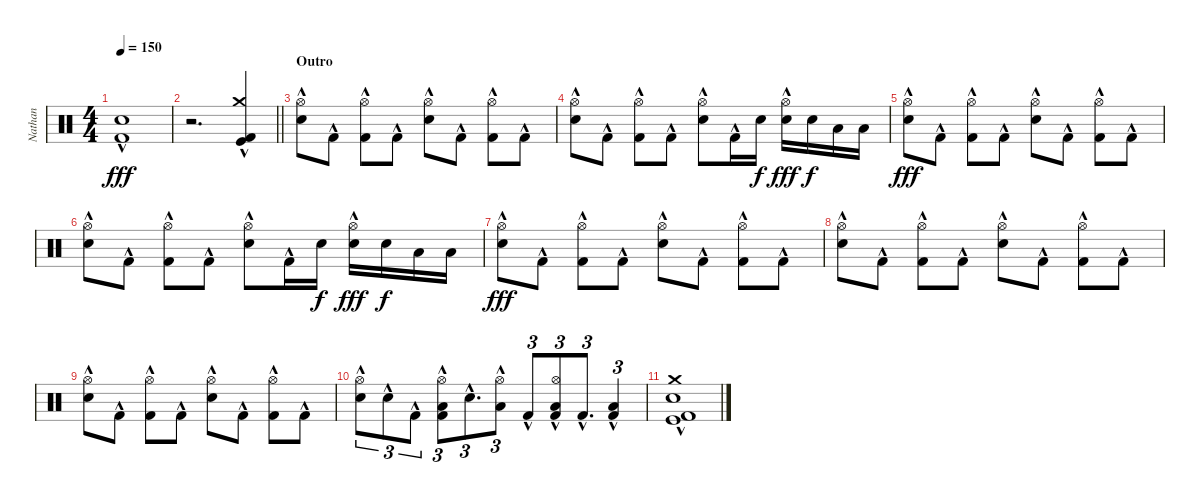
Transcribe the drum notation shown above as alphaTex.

\track ("Nathan" "Nathan") {instrument percussion}
\staff {score}
\articulation defaults
\ts (4 4)
\tempo 150
\clef neutral
\ks c
("Snare (hit) 2"{hac} "Kick (hit) 2"{hac}).1{dy fff} |
\barLineRight lightlight
r.2{d} ("Crash medium (hit)"{hac} "Kick (hit)"{hac} "Kick (hit) 2"{hac}).4 |
\section ("" "Outro")
("Hi-Hat (open)"{hac} "Snare (hit) 2"{hac}).8 "Kick (hit) 2"{hac}.8 ("Hi-Hat (open)"{hac} "Kick (hit) 2"{hac}).8 "Kick (hit) 2"{hac}.8 ("Hi-Hat (open)"{hac} "Snare (hit) 2"{hac}).8 "Kick (hit) 2"{hac}.8 ("Hi-Hat (open)"{hac} "Kick (hit) 2"{hac}).8 "Kick (hit) 2"{hac}.8 |
("Hi-Hat (open)"{hac} "Snare (hit) 2"{hac}).8 "Kick (hit) 2"{hac}.8 ("Hi-Hat (open)"{hac} "Kick (hit) 2"{hac}).8 "Kick (hit) 2"{hac}.8 ("Hi-Hat (open)"{hac} "Snare (hit) 2"{hac}).8 "Kick (hit) 2"{hac}.16 "Snare (hit) 2".16{dy f} ("Hi-Hat (open)"{hac} "Snare (hit) 2").16{dy fff} "Snare (hit) 2".16{dy f} "Low Tom (hit)".16 "Low Tom (hit)".16 |
("Hi-Hat (open)"{hac} "Snare (hit) 2"{hac}).8{dy fff} "Kick (hit) 2"{hac}.8 ("Hi-Hat (open)"{hac} "Kick (hit) 2"{hac}).8 "Kick (hit) 2"{hac}.8 ("Hi-Hat (open)"{hac} "Snare (hit) 2"{hac}).8 "Kick (hit) 2"{hac}.8 ("Hi-Hat (open)"{hac} "Kick (hit) 2"{hac}).8 "Kick (hit) 2"{hac}.8 |
("Hi-Hat (open)"{hac} "Snare (hit) 2"{hac}).8 "Kick (hit) 2"{hac}.8 ("Hi-Hat (open)"{hac} "Kick (hit) 2"{hac}).8 "Kick (hit) 2"{hac}.8 ("Hi-Hat (open)"{hac} "Snare (hit) 2"{hac}).8 "Kick (hit) 2"{hac}.16 "Snare (hit) 2".16{dy f} ("Hi-Hat (open)"{hac} "Snare (hit) 2").16{dy fff} "Snare (hit) 2".16{dy f} "Low Tom (hit)".16 "Low Tom (hit)".16 |
("Hi-Hat (open)"{hac} "Snare (hit) 2"{hac}).8{dy fff} "Kick (hit) 2"{hac}.8 ("Hi-Hat (open)"{hac} "Kick (hit) 2"{hac}).8 "Kick (hit) 2"{hac}.8 ("Hi-Hat (open)"{hac} "Snare (hit) 2"{hac}).8 "Kick (hit) 2"{hac}.8 ("Hi-Hat (open)"{hac} "Kick (hit) 2"{hac}).8 "Kick (hit) 2"{hac}.8 |
("Hi-Hat (open)"{hac} "Snare (hit) 2"{hac}).8 "Kick (hit) 2"{hac}.8 ("Hi-Hat (open)"{hac} "Kick (hit) 2"{hac}).8 "Kick (hit) 2"{hac}.8 ("Hi-Hat (open)"{hac} "Snare (hit) 2"{hac}).8 "Kick (hit) 2"{hac}.8 ("Hi-Hat (open)"{hac} "Kick (hit) 2"{hac}).8 "Kick (hit) 2"{hac}.8 |
("Hi-Hat (open)"{hac} "Snare (hit) 2"{hac}).8 "Kick (hit) 2"{hac}.8 ("Hi-Hat (open)"{hac} "Kick (hit) 2"{hac}).8 "Kick (hit) 2"{hac}.8 ("Hi-Hat (open)"{hac} "Snare (hit) 2"{hac}).8 "Kick (hit) 2"{hac}.8 ("Hi-Hat (open)"{hac} "Kick (hit) 2"{hac}).8 "Kick (hit) 2"{hac}.8 |
("Hi-Hat (open)" "Snare (hit) 2"{hac}).8{tu (3 2)} "Snare (hit) 2"{hac}.8{tu (3 2)} "Kick (hit) 2"{hac}.8{tu (3 2)} ("Hi-Hat (open)" "Low Tom (hit)"{hac} "Kick (hit) 2"{hac}).8{tu (3 2)} "Snare (hit) 2"{hac}.8{d tu (3 2)} ("Hi-Hat (open)" "Low Tom (hit)"{hac}).8{tu (3 2)} "Kick (hit) 2"{hac}.8{tu (3 2)} ("Hi-Hat (open)" "Low Floor Tom (hit)"{hac} "Kick (hit) 2").8{tu (3 2)} "Kick (hit) 2"{hac}.8{d tu (3 2)} ("Low Floor Tom (hit)"{hac} "Kick (hit) 2"{hac}).4{tu (3 2)} |
("Crash medium (hit)"{hac} "Snare (hit) 2"{hac} "Kick (hit)"{hac} "Kick (hit) 2"{hac}).1
